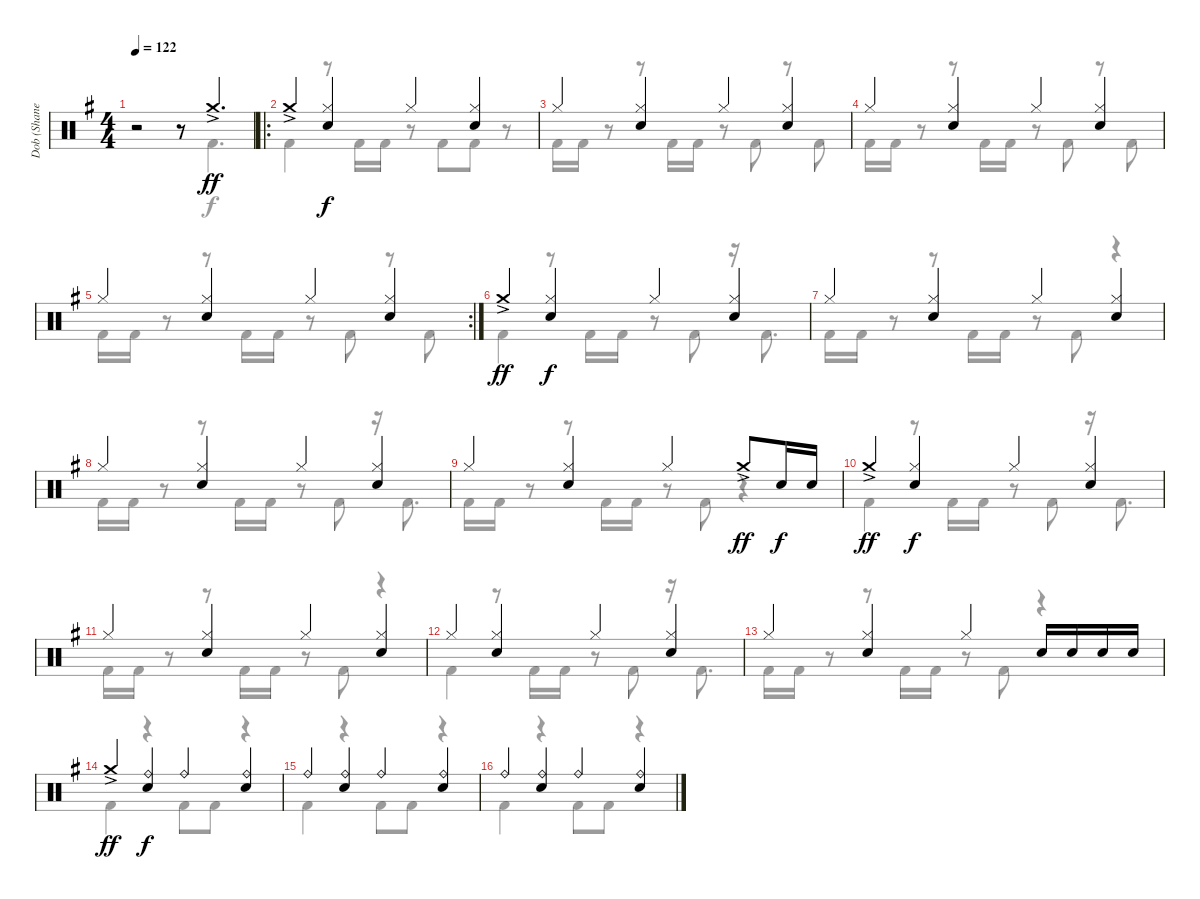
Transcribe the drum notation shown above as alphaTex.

\track ("Dob (Shane Gaalaas)" "Dob (Shane") {instrument percussion}
\staff {score}
\articulation defaults
\voice
\ts (4 4)
\tempo 122
\clef neutral
\ks g
r.2{dy ff} r.8 "Crash medium (hit)"{ac}.4{d} |
\ro "Crash medium (hit)"{ac}.4
("Hi-Hat (closed)" "Electric Snare (hit)").4{dy f} "Hi-Hat (closed)".4 ("Hi-Hat (closed)" "Electric Snare (hit)").4 |
"Hi-Hat (closed)".4 ("Hi-Hat (closed)" "Electric Snare (hit)").4 "Hi-Hat (closed)".4 ("Hi-Hat (closed)" "Electric Snare (hit)").4 |
"Hi-Hat (closed)".4 ("Hi-Hat (closed)" "Electric Snare (hit)").4 "Hi-Hat (closed)".4 ("Hi-Hat (closed)" "Electric Snare (hit)").4 |
\rc 2 "Hi-Hat (closed)".4
("Hi-Hat (closed)" "Electric Snare (hit)").4 "Hi-Hat (closed)".4 ("Hi-Hat (closed)" "Electric Snare (hit)").4 |
"Crash medium (hit)"{ac}.4{dy ff} ("Hi-Hat (closed)" "Electric Snare (hit)").4{dy f} "Hi-Hat (closed)".4 ("Hi-Hat (closed)" "Electric Snare (hit)").4 |
"Hi-Hat (closed)".4 ("Hi-Hat (closed)" "Electric Snare (hit)").4 "Hi-Hat (closed)".4 ("Hi-Hat (closed)" "Electric Snare (hit)").4 |
"Hi-Hat (closed)".4 ("Hi-Hat (closed)" "Electric Snare (hit)").4 "Hi-Hat (closed)".4 ("Hi-Hat (closed)" "Electric Snare (hit)").4 |
"Hi-Hat (closed)".4 ("Hi-Hat (closed)" "Electric Snare (hit)").4 "Hi-Hat (closed)".4 "Crash medium (hit)"{ac}.8{dy ff} "Electric Snare (hit)".16{dy f} "Electric Snare (hit)".16 |
"Crash medium (hit)"{ac}.4{dy ff} ("Hi-Hat (closed)" "Electric Snare (hit)").4{dy f} "Hi-Hat (closed)".4 ("Hi-Hat (closed)" "Electric Snare (hit)").4 |
"Hi-Hat (closed)".4 ("Hi-Hat (closed)" "Electric Snare (hit)").4 "Hi-Hat (closed)".4 ("Hi-Hat (closed)" "Electric Snare (hit)").4 |
"Hi-Hat (closed)".4 ("Hi-Hat (closed)" "Electric Snare (hit)").4 "Hi-Hat (closed)".4 ("Hi-Hat (closed)" "Electric Snare (hit)").4 |
"Hi-Hat (closed)".4 ("Hi-Hat (closed)" "Electric Snare (hit)").4 "Hi-Hat (closed)".4 "Electric Snare (hit)".16 "Electric Snare (hit)".16 "Electric Snare (hit)".16 "Electric Snare (hit)".16 |
"Crash medium (hit)"{ac}.4{dy ff} ("Ride (bell)" "Electric Snare (hit)").4{dy f} "Ride (bell)".4 ("Ride (bell)" "Electric Snare (hit)").4 |
"Ride (bell)".4 ("Ride (bell)" "Electric Snare (hit)").4 "Ride (bell)".4 ("Ride (bell)" "Electric Snare (hit)").4 |
"Ride (bell)".4 ("Ride (bell)" "Electric Snare (hit)").4 "Ride (bell)".4 ("Ride (bell)" "Electric Snare (hit)").4
\voice
\clef neutral
\ottava regular
\simile none
\ks g
r.2{dy f} r.8 "Kick (hit) 2".4{d} |
"Kick (hit) 2".4 r.8 "Kick (hit) 2".16 "Kick (hit) 2".16 r.8 "Kick (hit) 2".8{beam merge} "Kick (hit) 2".8 r.8 |
"Kick (hit) 2".16 "Kick (hit) 2".16 r.8 r.8 "Kick (hit) 2".16 "Kick (hit) 2".16 r.8 "Kick (hit) 2".8 r.8 "Kick (hit) 2".8 |
"Kick (hit) 2".16 "Kick (hit) 2".16 r.8 r.8 "Kick (hit) 2".16 "Kick (hit) 2".16 r.8 "Kick (hit) 2".8 r.8 "Kick (hit) 2".8 |
"Kick (hit) 2".16 "Kick (hit) 2".16 r.8 r.8 "Kick (hit) 2".16 "Kick (hit) 2".16 r.8 "Kick (hit) 2".8 r.8 "Kick (hit) 2".8 |
"Kick (hit) 2".4 r.8 "Kick (hit) 2".16 "Kick (hit) 2".16 r.8 "Kick (hit) 2".8 r.16 "Kick (hit) 2".8{d} |
"Kick (hit) 2".16 "Kick (hit) 2".16 r.8 r.8 "Kick (hit) 2".16 "Kick (hit) 2".16 r.8 "Kick (hit) 2".8 r.4 |
"Kick (hit) 2".16 "Kick (hit) 2".16 r.8 r.8 "Kick (hit) 2".16 "Kick (hit) 2".16 r.8 "Kick (hit) 2".8 r.16 "Kick (hit) 2".8{d} |
"Kick (hit) 2".16 "Kick (hit) 2".16 r.8 r.8 "Kick (hit) 2".16 "Kick (hit) 2".16 r.8 "Kick (hit) 2".8 r.4 |
"Kick (hit) 2".4 r.8 "Kick (hit) 2".16 "Kick (hit) 2".16 r.8 "Kick (hit) 2".8 r.16 "Kick (hit) 2".8{d} |
"Kick (hit) 2".16 "Kick (hit) 2".16 r.8 r.8 "Kick (hit) 2".16 "Kick (hit) 2".16 r.8 "Kick (hit) 2".8 r.4 |
"Kick (hit) 2".4 r.8 "Kick (hit) 2".16 "Kick (hit) 2".16 r.8 "Kick (hit) 2".8 r.16 "Kick (hit) 2".8{d} |
"Kick (hit) 2".16 "Kick (hit) 2".16 r.8 r.8 "Kick (hit) 2".16 "Kick (hit) 2".16 r.8 "Kick (hit) 2".8 r.4 |
"Kick (hit) 2".4 r.4 "Kick (hit) 2".8 "Kick (hit) 2".8 r.4 |
"Kick (hit) 2".4 r.4 "Kick (hit) 2".8 "Kick (hit) 2".8 r.4 |
"Kick (hit) 2".4 r.4 "Kick (hit) 2".8 "Kick (hit) 2".8 r.4
